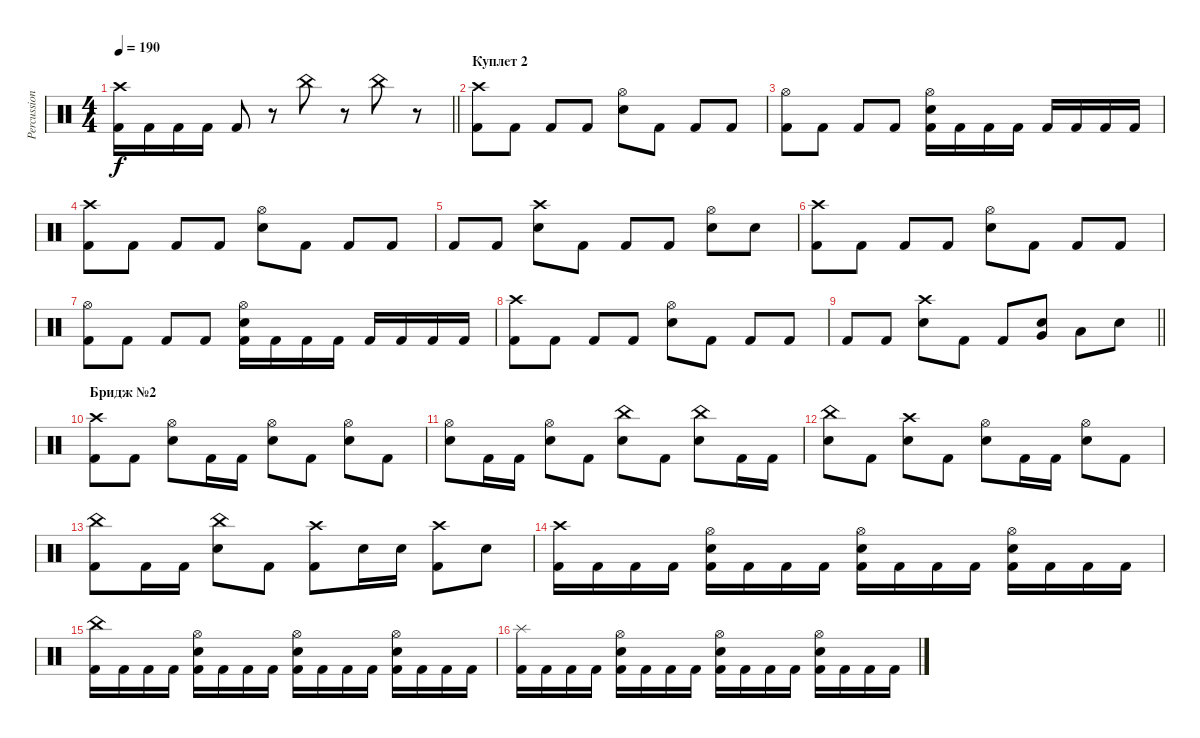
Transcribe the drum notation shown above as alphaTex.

\track ("Percussions" "Percussion") {instrument percussion}
\staff {score}
\articulation defaults
\ts (4 4)
\tempo 190
\clef neutral
\barLineRight lightlight
\ks c
("Crash high (hit)" "Kick (hit) 2").16{dy f} "Kick (hit) 2".16 "Kick (hit) 2".16 "Kick (hit) 2".16 "Kick (hit) 2".8 r.8 "China (hit)".8 r.8 "China (hit)".8 r.8 |
\section ("" "Куплет 2")
("Kick (hit) 2" "Crash high (hit)").8 "Kick (hit) 2".8 "Kick (hit) 2".8 "Kick (hit) 2".8 ("Electric Snare (hit)" "Hi-Hat (open)").8 "Kick (hit) 2".8 "Kick (hit) 2".8 "Kick (hit) 2".8 |
("Kick (hit) 2" "Hi-Hat (open)").8 "Kick (hit) 2".8 "Kick (hit) 2".8 "Kick (hit) 2".8 ("Kick (hit) 2" "Electric Snare (hit)" "Hi-Hat (open)").16 "Kick (hit) 2".16 "Kick (hit) 2".16 "Kick (hit) 2".16 "Kick (hit) 2".16 "Kick (hit) 2".16 "Kick (hit) 2".16 "Kick (hit) 2".16 |
("Kick (hit) 2" "Crash high (hit)").8 "Kick (hit) 2".8 "Kick (hit) 2".8 "Kick (hit) 2".8 ("Electric Snare (hit)" "Hi-Hat (open)").8 "Kick (hit) 2".8 "Kick (hit) 2".8 "Kick (hit) 2".8 |
"Kick (hit) 2".8 "Kick (hit) 2".8 ("Electric Snare (hit)" "Crash high (hit)").8 "Kick (hit) 2".8 "Kick (hit) 2".8 "Kick (hit) 2".8 ("Electric Snare (hit)" "Hi-Hat (open)").8 "Electric Snare (hit)".8 |
("Kick (hit) 2" "Crash high (hit)").8 "Kick (hit) 2".8 "Kick (hit) 2".8 "Kick (hit) 2".8 ("Electric Snare (hit)" "Hi-Hat (open)").8 "Kick (hit) 2".8 "Kick (hit) 2".8 "Kick (hit) 2".8 |
("Kick (hit) 2" "Hi-Hat (open)").8 "Kick (hit) 2".8 "Kick (hit) 2".8 "Kick (hit) 2".8 ("Kick (hit) 2" "Electric Snare (hit)" "Hi-Hat (open)").16 "Kick (hit) 2".16 "Kick (hit) 2".16 "Kick (hit) 2".16 "Kick (hit) 2".16 "Kick (hit) 2".16 "Kick (hit) 2".16 "Kick (hit) 2".16 |
("Kick (hit) 2" "Crash high (hit)").8 "Kick (hit) 2".8 "Kick (hit) 2".8 "Kick (hit) 2".8 ("Electric Snare (hit)" "Hi-Hat (open)").8 "Kick (hit) 2".8 "Kick (hit) 2".8 "Kick (hit) 2".8 |
\barLineRight lightlight "Kick (hit) 2".8 "Kick (hit) 2".8
("Electric Snare (hit)" "Crash high (hit)").8 "Kick (hit) 2".8 "Kick (hit) 2".8 ("Electric Snare (hit)" "Very Low Tom (hit)").8 "Low Floor Tom (hit)".8 "Electric Snare (hit)".8 |
\section ("" "Бридж №2")
("Kick (hit) 2" "Crash high (hit)").8 "Kick (hit) 2".8 ("Electric Snare (hit)" "Hi-Hat (open)").8 "Kick (hit) 2".16 "Kick (hit) 2".16 ("Electric Snare (hit)" "Hi-Hat (open)").8 "Kick (hit) 2".8 ("Hi-Hat (open)" "Electric Snare (hit)").8 "Kick (hit) 2".8 |
("Electric Snare (hit)" "Hi-Hat (open)").8 "Kick (hit) 2".16 "Kick (hit) 2".16 ("Hi-Hat (open)" "Electric Snare (hit)").8 "Kick (hit) 2".8 ("Electric Snare (hit)" "China (hit)").8 "Kick (hit) 2".8 ("Electric Snare (hit)" "China (hit)").8 "Kick (hit) 2".16 "Kick (hit) 2".16 |
("Electric Snare (hit)" "China (hit)").8 "Kick (hit) 2".8 ("Electric Snare (hit)" "Crash high (hit)").8 "Kick (hit) 2".8 ("Electric Snare (hit)" "Hi-Hat (open)").8 "Kick (hit) 2".16 "Kick (hit) 2".16 ("Electric Snare (hit)" "Hi-Hat (open)").8 "Kick (hit) 2".8 |
("Kick (hit) 2" "China (hit)").8 "Kick (hit) 2".16 "Kick (hit) 2".16 ("Electric Snare (hit)" "China (hit)").8 "Kick (hit) 2".8 ("Kick (hit) 2" "Crash high (hit)").8 "Electric Snare (hit)".16 "Electric Snare (hit)".16 ("Kick (hit) 2" "Crash high (hit)").8 "Electric Snare (hit)".8 |
("Kick (hit) 2" "Crash high (hit)").16 "Kick (hit) 2".16 "Kick (hit) 2".16 "Kick (hit) 2".16 ("Kick (hit) 2" "Electric Snare (hit)" "Hi-Hat (open)").16 "Kick (hit) 2".16 "Kick (hit) 2".16 "Kick (hit) 2".16 ("Kick (hit) 2" "Electric Snare (hit)" "Hi-Hat (open)").16 "Kick (hit) 2".16 "Kick (hit) 2".16 "Kick (hit) 2".16 ("Kick (hit) 2" "Hi-Hat (open)" "Electric Snare (hit)").16 "Kick (hit) 2".16 "Kick (hit) 2".16 "Kick (hit) 2".16 |
("Kick (hit) 2" "China (hit)").16 "Kick (hit) 2".16 "Kick (hit) 2".16 "Kick (hit) 2".16 ("Kick (hit) 2" "Electric Snare (hit)" "Hi-Hat (open)").16 "Kick (hit) 2".16 "Kick (hit) 2".16 "Kick (hit) 2".16 ("Kick (hit) 2" "Electric Snare (hit)" "Hi-Hat (open)").16 "Kick (hit) 2".16 "Kick (hit) 2".16 "Kick (hit) 2".16 ("Kick (hit) 2" "Hi-Hat (open)" "Electric Snare (hit)").16 "Kick (hit) 2".16 "Kick (hit) 2".16 "Kick (hit) 2".16 |
("Kick (hit) 2" "Splash (hit)").16 "Kick (hit) 2".16 "Kick (hit) 2".16 "Kick (hit) 2".16 ("Kick (hit) 2" "Electric Snare (hit)" "Hi-Hat (open)").16 "Kick (hit) 2".16 "Kick (hit) 2".16 "Kick (hit) 2".16 ("Kick (hit) 2" "Electric Snare (hit)" "Hi-Hat (open)").16 "Kick (hit) 2".16 "Kick (hit) 2".16 "Kick (hit) 2".16 ("Kick (hit) 2" "Hi-Hat (open)" "Electric Snare (hit)").16 "Kick (hit) 2".16 "Kick (hit) 2".16 "Kick (hit) 2".16
